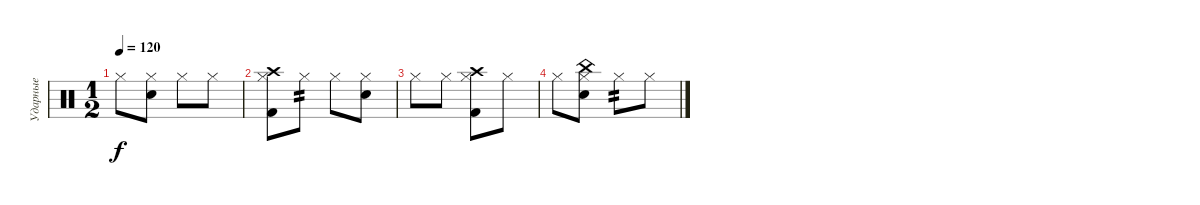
\track ("Ударные" "Ударные") {instrument percussion}
\staff {score}
\articulation defaults
\ts (1 2)
\tempo 120
\clef neutral
\ks c "Hi-Hat (closed)".8{dy f}
("Hi-Hat (closed)" "Snare (hit) 2").8 "Hi-Hat (closed)".8 "Hi-Hat (closed)".8 |
("Crash high (hit)" "Hi-Hat (closed)" "Kick (hit) 2").8 "Hi-Hat (closed)".8{tp 2} "Hi-Hat (closed)".8 ("Hi-Hat (closed)" "Snare (hit) 2").8 |
"Hi-Hat (closed)".8 "Hi-Hat (closed)".8 ("Crash high (hit)" "Hi-Hat (closed)" "Kick (hit) 2").8 "Hi-Hat (closed)".8 |
"Hi-Hat (closed)".8 ("China (hit)" "Hi-Hat (closed)" "Snare (hit) 2").8 "Hi-Hat (closed)".8{tp 2} "Hi-Hat (closed)".8
